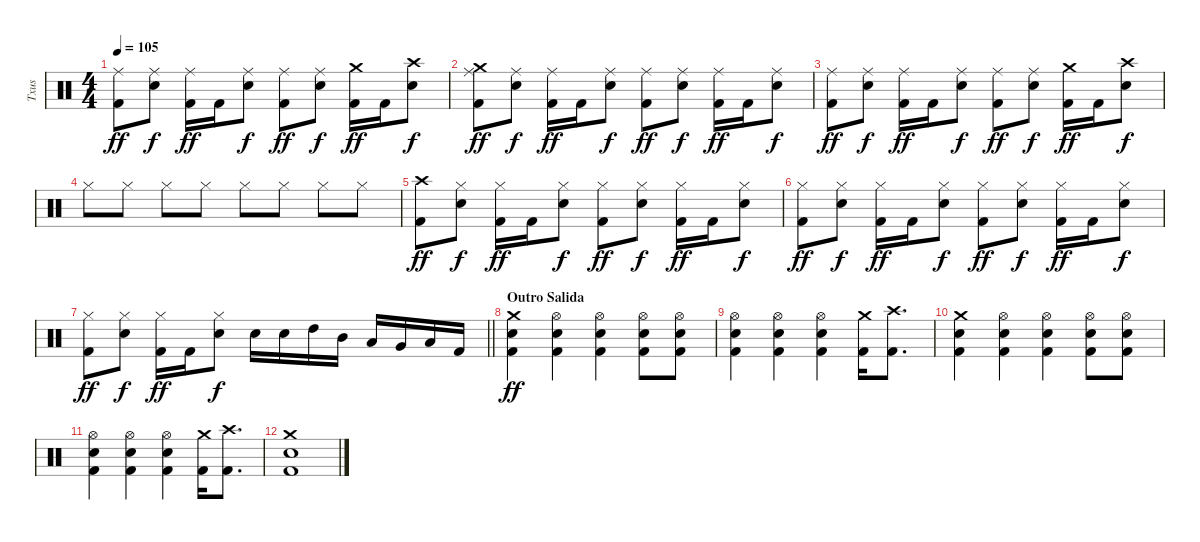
\track ("Txus" "Txus") {instrument percussion}
\staff {score}
\articulation defaults
\ts (4 4)
\tempo 105
\clef neutral
\ks c
("Ride (middle)" "Kick (hit) 2").8{dy ff} ("Ride (middle)" "Electric Snare (hit)").8{dy f} ("Ride (middle)" "Kick (hit) 2").16{dy ff} "Kick (hit) 2".16 ("Ride (middle)" "Electric Snare (hit)").8{dy f} ("Ride (middle)" "Kick (hit) 2").8{dy ff} ("Ride (middle)" "Electric Snare (hit)").8{dy f} ("Crash medium (hit)" "Kick (hit) 2").16{dy ff} "Kick (hit) 2".16 ("Crash high (hit)" "Electric Snare (hit)").8{dy f} |
("Crash medium (hit)" "Ride (middle)" "Kick (hit) 2").8{dy ff} ("Ride (middle)" "Electric Snare (hit)").8{dy f} ("Ride (middle)" "Kick (hit) 2").16{dy ff} "Kick (hit) 2".16 ("Ride (middle)" "Electric Snare (hit)").8{dy f} ("Ride (middle)" "Kick (hit) 2").8{dy ff} ("Ride (middle)" "Electric Snare (hit)").8{dy f} ("Ride (middle)" "Kick (hit) 2").16{dy ff} "Kick (hit) 2".16 ("Ride (middle)" "Electric Snare (hit)").8{dy f} |
("Ride (middle)" "Kick (hit) 2").8{dy ff} ("Ride (middle)" "Electric Snare (hit)").8{dy f} ("Ride (middle)" "Kick (hit) 2").16{dy ff} "Kick (hit) 2".16 ("Ride (middle)" "Electric Snare (hit)").8{dy f} ("Ride (middle)" "Kick (hit) 2").8{dy ff} ("Ride (middle)" "Electric Snare (hit)").8{dy f} ("Crash medium (hit)" "Kick (hit) 2").16{dy ff} "Kick (hit) 2".16 ("Crash high (hit)" "Electric Snare (hit)").8{dy f} |
"Hi-Hat (closed)".8 "Hi-Hat (closed)".8 "Hi-Hat (closed)".8 "Hi-Hat (closed)".8 "Hi-Hat (closed)".8 "Hi-Hat (closed)".8 "Hi-Hat (closed)".8 "Hi-Hat (closed)".8 |
("Crash high (hit)" "Kick (hit) 2").8{dy ff} ("Hi-Hat (closed)" "Electric Snare (hit)").8{dy f} ("Hi-Hat (closed)" "Kick (hit) 2").16{dy ff} "Kick (hit) 2".16 ("Hi-Hat (closed)" "Electric Snare (hit)").8{dy f} ("Hi-Hat (closed)" "Kick (hit) 2").8{dy ff} ("Hi-Hat (closed)" "Electric Snare (hit)").8{dy f} ("Hi-Hat (closed)" "Kick (hit) 2").16{dy ff} "Kick (hit) 2".16 ("Hi-Hat (closed)" "Electric Snare (hit)").8{dy f} |
("Hi-Hat (closed)" "Kick (hit) 2").8{dy ff} ("Hi-Hat (closed)" "Electric Snare (hit)").8{dy f} ("Hi-Hat (closed)" "Kick (hit) 2").16{dy ff} "Kick (hit) 2".16 ("Hi-Hat (closed)" "Electric Snare (hit)").8{dy f} ("Hi-Hat (closed)" "Kick (hit) 2").8{dy ff} ("Hi-Hat (closed)" "Electric Snare (hit)").8{dy f} ("Hi-Hat (closed)" "Kick (hit) 2").16{dy ff} "Kick (hit) 2".16 ("Hi-Hat (closed)" "Electric Snare (hit)").8{dy f} |
\barLineRight lightlight
("Hi-Hat (closed)" "Kick (hit) 2").8{dy ff} ("Hi-Hat (closed)" "Electric Snare (hit)").8{dy f} ("Hi-Hat (closed)" "Kick (hit) 2").16{dy ff} "Kick (hit) 2".16 ("Hi-Hat (closed)" "Electric Snare (hit)").8{dy f} "Electric Snare (hit)".16 "Electric Snare (hit)".16 "High Tom (hit)".16 "Mid Tom (hit)".16 "Low Tom (hit)".16 "Very Low Tom (hit)".16 "Low Floor Tom (hit)".16 "Kick (hit) 2".16 |
\section ("" "Outro Salida")
("Crash medium (hit)" "Electric Snare (hit)" "Kick (hit) 2").4{dy ff} ("Hi-Hat (open)" "Electric Snare (hit)" "Kick (hit) 2").4 ("Hi-Hat (open)" "Electric Snare (hit)" "Kick (hit) 2").4 ("Hi-Hat (open)" "Electric Snare (hit)" "Kick (hit) 2").8 ("Hi-Hat (open)" "Electric Snare (hit)" "Kick (hit) 2").8 |
("Hi-Hat (open)" "Electric Snare (hit)" "Kick (hit) 2").4 ("Hi-Hat (open)" "Electric Snare (hit)" "Kick (hit) 2").4 ("Hi-Hat (open)" "Electric Snare (hit)" "Kick (hit) 2").4 ("Crash medium (hit)" "Kick (hit) 2").16 ("Crash high (hit)" "Kick (hit) 2").8{d} |
("Crash medium (hit)" "Electric Snare (hit)" "Kick (hit) 2").4 ("Hi-Hat (open)" "Electric Snare (hit)" "Kick (hit) 2").4 ("Hi-Hat (open)" "Electric Snare (hit)" "Kick (hit) 2").4 ("Hi-Hat (open)" "Electric Snare (hit)" "Kick (hit) 2").8 ("Hi-Hat (open)" "Electric Snare (hit)" "Kick (hit) 2").8 |
("Hi-Hat (open)" "Electric Snare (hit)" "Kick (hit) 2").4 ("Hi-Hat (open)" "Electric Snare (hit)" "Kick (hit) 2").4 ("Hi-Hat (open)" "Electric Snare (hit)" "Kick (hit) 2").4 ("Crash medium (hit)" "Kick (hit) 2").16 ("Crash high (hit)" "Kick (hit) 2").8{d} |
("Crash medium (hit)" "Electric Snare (hit)" "Kick (hit) 2").1
